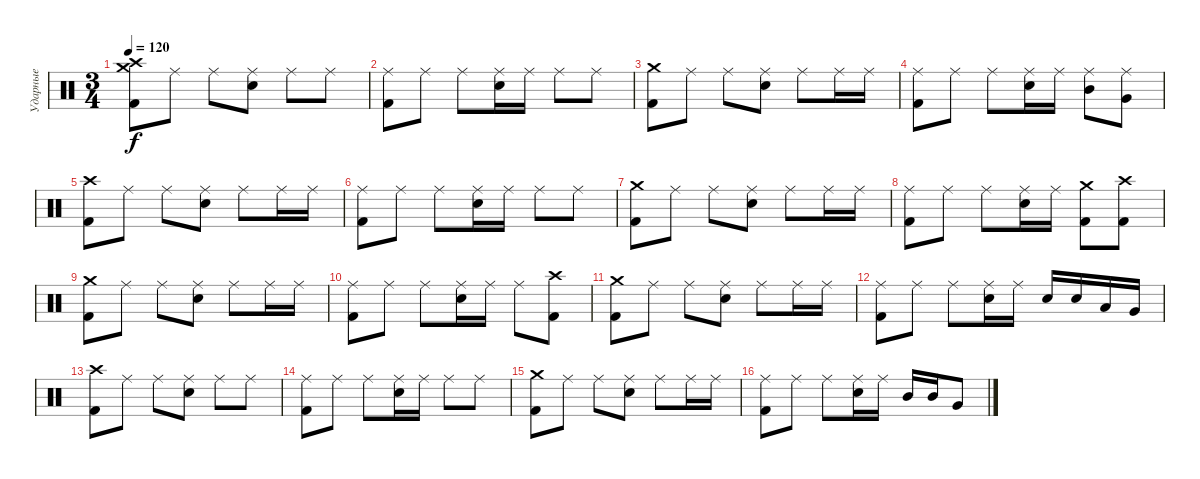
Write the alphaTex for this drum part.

\track ("Ударные" "Ударные") {instrument percussion}
\staff {score}
\articulation defaults
\ts (3 4)
\tempo 120
\clef neutral
\ks c
("Crash medium (hit)" "Crash high (hit)" "Kick (hit) 2").8{dy f} "Ride (middle)".8 "Ride (middle)".8 ("Ride (middle)" "Electric Snare (hit)").8 "Ride (middle)".8 "Ride (middle)".8 |
("Ride (middle)" "Kick (hit) 2").8 "Ride (middle)".8 "Ride (middle)".8 ("Ride (middle)" "Electric Snare (hit)").16 "Ride (middle)".16 "Ride (middle)".8 "Ride (middle)".8 |
("Crash medium (hit)" "Kick (hit) 2").8 "Ride (middle)".8 "Ride (middle)".8 ("Ride (middle)" "Electric Snare (hit)").8 "Ride (middle)".8 "Ride (middle)".16 "Ride (middle)".16 |
("Ride (middle)" "Kick (hit) 2").8 "Ride (middle)".8 "Ride (middle)".8 ("Ride (middle)" "Electric Snare (hit)").16 "Ride (middle)".16 ("Ride (middle)" "Mid Tom (hit)").8 ("Ride (middle)" "Very Low Tom (hit)").8 |
("Crash high (hit)" "Kick (hit) 2").8 "Ride (middle)".8 "Ride (middle)".8 ("Ride (middle)" "Electric Snare (hit)").8 "Ride (middle)".8 "Ride (middle)".16 "Ride (middle)".16 |
("Ride (middle)" "Kick (hit) 2").8 "Ride (middle)".8 "Ride (middle)".8 ("Ride (middle)" "Electric Snare (hit)").16 "Ride (middle)".16 "Ride (middle)".8 "Ride (middle)".8 |
("Crash medium (hit)" "Kick (hit) 2").8 "Ride (middle)".8 "Ride (middle)".8 ("Ride (middle)" "Electric Snare (hit)").8 "Ride (middle)".8 "Ride (middle)".16 "Ride (middle)".16 |
("Ride (middle)" "Kick (hit) 2").8 "Ride (middle)".8 "Ride (middle)".8 ("Ride (middle)" "Electric Snare (hit)").16 "Ride (middle)".16 ("Crash medium (hit)" "Kick (hit) 2").8 ("Crash high (hit)" "Kick (hit) 2").8 |
("Crash medium (hit)" "Kick (hit) 2").8 "Ride (middle)".8 "Ride (middle)".8 ("Ride (middle)" "Electric Snare (hit)").8 "Ride (middle)".8 "Ride (middle)".16 "Ride (middle)".16 |
("Ride (middle)" "Kick (hit) 2").8 "Ride (middle)".8 "Ride (middle)".8 ("Ride (middle)" "Electric Snare (hit)").16 "Ride (middle)".16 "Ride (middle)".8 ("Crash high (hit)" "Kick (hit) 2").8 |
("Crash medium (hit)" "Kick (hit) 2").8 "Ride (middle)".8 "Ride (middle)".8 ("Ride (middle)" "Electric Snare (hit)").8 "Ride (middle)".8 "Ride (middle)".16 "Ride (middle)".16 |
("Ride (middle)" "Kick (hit) 2").8 "Ride (middle)".8 "Ride (middle)".8 ("Ride (middle)" "Electric Snare (hit)").16 "Ride (middle)".16 "Electric Snare (hit)".16 "Electric Snare (hit)".16 "Low Tom (hit)".16 "Very Low Tom (hit)".16 |
("Crash high (hit)" "Kick (hit) 2").8 "Ride (middle)".8 "Ride (middle)".8 ("Ride (middle)" "Electric Snare (hit)").8 "Ride (middle)".8 "Ride (middle)".8 |
("Ride (middle)" "Kick (hit) 2").8 "Ride (middle)".8 "Ride (middle)".8 ("Ride (middle)" "Electric Snare (hit)").16 "Ride (middle)".16 "Ride (middle)".8 "Ride (middle)".8 |
("Crash medium (hit)" "Kick (hit) 2").8 "Ride (middle)".8 "Ride (middle)".8 ("Ride (middle)" "Electric Snare (hit)").8 "Ride (middle)".8 "Ride (middle)".16 "Ride (middle)".16 |
("Ride (middle)" "Kick (hit) 2").8 "Ride (middle)".8 "Ride (middle)".8 ("Ride (middle)" "Electric Snare (hit)").16 "Ride (middle)".16 "Mid Tom (hit)".16 "Mid Tom (hit)".16 "Very Low Tom (hit)".8
